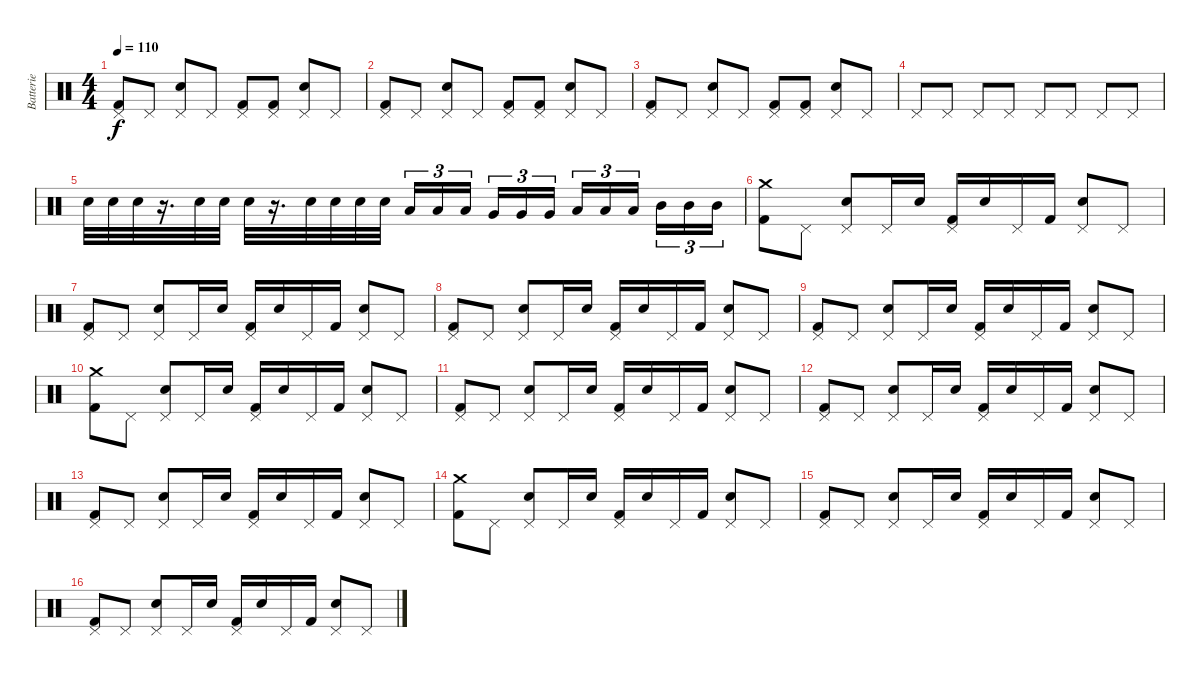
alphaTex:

\track ("Batterie" "Batterie") {instrument percussion}
\staff {score}
\articulation defaults
\ts (4 4)
\tempo 110
\clef neutral
\ks c
("Kick (hit) 2" "Pedal Hi-Hat (hit)").8{dy f} "Pedal Hi-Hat (hit)".8 ("Electric Snare (hit)" "Pedal Hi-Hat (hit)").8 "Pedal Hi-Hat (hit)".8 ("Kick (hit) 2" "Pedal Hi-Hat (hit)").8 ("Kick (hit) 2" "Pedal Hi-Hat (hit)").8 ("Electric Snare (hit)" "Pedal Hi-Hat (hit)").8 "Pedal Hi-Hat (hit)".8 |
("Kick (hit) 2" "Pedal Hi-Hat (hit)").8 "Pedal Hi-Hat (hit)".8 ("Electric Snare (hit)" "Pedal Hi-Hat (hit)").8 "Pedal Hi-Hat (hit)".8 ("Kick (hit) 2" "Pedal Hi-Hat (hit)").8 ("Kick (hit) 2" "Pedal Hi-Hat (hit)").8 ("Electric Snare (hit)" "Pedal Hi-Hat (hit)").8 "Pedal Hi-Hat (hit)".8 |
("Kick (hit) 2" "Pedal Hi-Hat (hit)").8 "Pedal Hi-Hat (hit)".8 ("Electric Snare (hit)" "Pedal Hi-Hat (hit)").8 "Pedal Hi-Hat (hit)".8 ("Kick (hit) 2" "Pedal Hi-Hat (hit)").8 ("Kick (hit) 2" "Pedal Hi-Hat (hit)").8 ("Electric Snare (hit)" "Pedal Hi-Hat (hit)").8 "Pedal Hi-Hat (hit)".8 |
"Pedal Hi-Hat (hit)".8 "Pedal Hi-Hat (hit)".8 "Pedal Hi-Hat (hit)".8 "Pedal Hi-Hat (hit)".8 "Pedal Hi-Hat (hit)".8 "Pedal Hi-Hat (hit)".8 "Pedal Hi-Hat (hit)".8 "Pedal Hi-Hat (hit)".8 |
"Electric Snare (hit)".32 "Electric Snare (hit)".32 "Electric Snare (hit)".32 r.16{d} "Electric Snare (hit)".32 "Electric Snare (hit)".32 "Electric Snare (hit)".32 r.16{d} "Electric Snare (hit)".32 "Electric Snare (hit)".32 "Electric Snare (hit)".32 "Electric Snare (hit)".32 "Low Floor Tom (hit)".16{tu (3 2)} "Low Floor Tom (hit)".16{tu (3 2)} "Low Floor Tom (hit)".16{tu (3 2)} "Very Low Tom (hit)".16{tu (3 2)} "Very Low Tom (hit)".16{tu (3 2)} "Very Low Tom (hit)".16{tu (3 2)} "Low Tom (hit)".16{tu (3 2)} "Low Tom (hit)".16{tu (3 2)} "Low Tom (hit)".16{tu (3 2)} "Mid Tom (hit)".16{tu (3 2)} "Mid Tom (hit)".16{tu (3 2)} "Mid Tom (hit)".16{tu (3 2)} |
("Crash medium (hit)" "Kick (hit) 2").8 "Pedal Hi-Hat (hit)".8 ("Pedal Hi-Hat (hit)" "Electric Snare (hit)").8 "Pedal Hi-Hat (hit)".16 "Electric Snare (hit)".16 ("Pedal Hi-Hat (hit)" "Kick (hit) 2").16 "Electric Snare (hit)".16 "Pedal Hi-Hat (hit)".16 "Kick (hit) 2".16 ("Pedal Hi-Hat (hit)" "Electric Snare (hit)").8 "Pedal Hi-Hat (hit)".8 |
("Pedal Hi-Hat (hit)" "Kick (hit) 2").8 "Pedal Hi-Hat (hit)".8 ("Pedal Hi-Hat (hit)" "Electric Snare (hit)").8 "Pedal Hi-Hat (hit)".16 "Electric Snare (hit)".16 ("Pedal Hi-Hat (hit)" "Kick (hit) 2").16 "Electric Snare (hit)".16 "Pedal Hi-Hat (hit)".16 "Kick (hit) 2".16 ("Pedal Hi-Hat (hit)" "Electric Snare (hit)").8 "Pedal Hi-Hat (hit)".8 |
("Pedal Hi-Hat (hit)" "Kick (hit) 2").8 "Pedal Hi-Hat (hit)".8 ("Pedal Hi-Hat (hit)" "Electric Snare (hit)").8 "Pedal Hi-Hat (hit)".16 "Electric Snare (hit)".16 ("Pedal Hi-Hat (hit)" "Kick (hit) 2").16 "Electric Snare (hit)".16 "Pedal Hi-Hat (hit)".16 "Kick (hit) 2".16 ("Pedal Hi-Hat (hit)" "Electric Snare (hit)").8 "Pedal Hi-Hat (hit)".8 |
("Pedal Hi-Hat (hit)" "Kick (hit) 2").8 "Pedal Hi-Hat (hit)".8 ("Pedal Hi-Hat (hit)" "Electric Snare (hit)").8 "Pedal Hi-Hat (hit)".16 "Electric Snare (hit)".16 ("Pedal Hi-Hat (hit)" "Kick (hit) 2").16 "Electric Snare (hit)".16 "Pedal Hi-Hat (hit)".16 "Kick (hit) 2".16 ("Pedal Hi-Hat (hit)" "Electric Snare (hit)").8 "Pedal Hi-Hat (hit)".8 |
("Crash medium (hit)" "Kick (hit) 2").8 "Pedal Hi-Hat (hit)".8 ("Pedal Hi-Hat (hit)" "Electric Snare (hit)").8 "Pedal Hi-Hat (hit)".16 "Electric Snare (hit)".16 ("Pedal Hi-Hat (hit)" "Kick (hit) 2").16 "Electric Snare (hit)".16 "Pedal Hi-Hat (hit)".16 "Kick (hit) 2".16 ("Pedal Hi-Hat (hit)" "Electric Snare (hit)").8 "Pedal Hi-Hat (hit)".8 |
("Pedal Hi-Hat (hit)" "Kick (hit) 2").8 "Pedal Hi-Hat (hit)".8 ("Pedal Hi-Hat (hit)" "Electric Snare (hit)").8 "Pedal Hi-Hat (hit)".16 "Electric Snare (hit)".16 ("Pedal Hi-Hat (hit)" "Kick (hit) 2").16 "Electric Snare (hit)".16 "Pedal Hi-Hat (hit)".16 "Kick (hit) 2".16 ("Pedal Hi-Hat (hit)" "Electric Snare (hit)").8 "Pedal Hi-Hat (hit)".8 |
("Pedal Hi-Hat (hit)" "Kick (hit) 2").8 "Pedal Hi-Hat (hit)".8 ("Pedal Hi-Hat (hit)" "Electric Snare (hit)").8 "Pedal Hi-Hat (hit)".16 "Electric Snare (hit)".16 ("Pedal Hi-Hat (hit)" "Kick (hit) 2").16 "Electric Snare (hit)".16 "Pedal Hi-Hat (hit)".16 "Kick (hit) 2".16 ("Pedal Hi-Hat (hit)" "Electric Snare (hit)").8 "Pedal Hi-Hat (hit)".8 |
("Pedal Hi-Hat (hit)" "Kick (hit) 2").8 "Pedal Hi-Hat (hit)".8 ("Pedal Hi-Hat (hit)" "Electric Snare (hit)").8 "Pedal Hi-Hat (hit)".16 "Electric Snare (hit)".16 ("Pedal Hi-Hat (hit)" "Kick (hit) 2").16 "Electric Snare (hit)".16 "Pedal Hi-Hat (hit)".16 "Kick (hit) 2".16 ("Pedal Hi-Hat (hit)" "Electric Snare (hit)").8 "Pedal Hi-Hat (hit)".8 |
("Crash medium (hit)" "Kick (hit) 2").8 "Pedal Hi-Hat (hit)".8 ("Pedal Hi-Hat (hit)" "Electric Snare (hit)").8 "Pedal Hi-Hat (hit)".16 "Electric Snare (hit)".16 ("Pedal Hi-Hat (hit)" "Kick (hit) 2").16 "Electric Snare (hit)".16 "Pedal Hi-Hat (hit)".16 "Kick (hit) 2".16 ("Pedal Hi-Hat (hit)" "Electric Snare (hit)").8 "Pedal Hi-Hat (hit)".8 |
("Pedal Hi-Hat (hit)" "Kick (hit) 2").8 "Pedal Hi-Hat (hit)".8 ("Pedal Hi-Hat (hit)" "Electric Snare (hit)").8 "Pedal Hi-Hat (hit)".16 "Electric Snare (hit)".16 ("Pedal Hi-Hat (hit)" "Kick (hit) 2").16 "Electric Snare (hit)".16 "Pedal Hi-Hat (hit)".16 "Kick (hit) 2".16 ("Pedal Hi-Hat (hit)" "Electric Snare (hit)").8 "Pedal Hi-Hat (hit)".8 |
("Pedal Hi-Hat (hit)" "Kick (hit) 2").8 "Pedal Hi-Hat (hit)".8 ("Pedal Hi-Hat (hit)" "Electric Snare (hit)").8 "Pedal Hi-Hat (hit)".16 "Electric Snare (hit)".16 ("Pedal Hi-Hat (hit)" "Kick (hit) 2").16 "Electric Snare (hit)".16 "Pedal Hi-Hat (hit)".16 "Kick (hit) 2".16 ("Pedal Hi-Hat (hit)" "Electric Snare (hit)").8 "Pedal Hi-Hat (hit)".8
